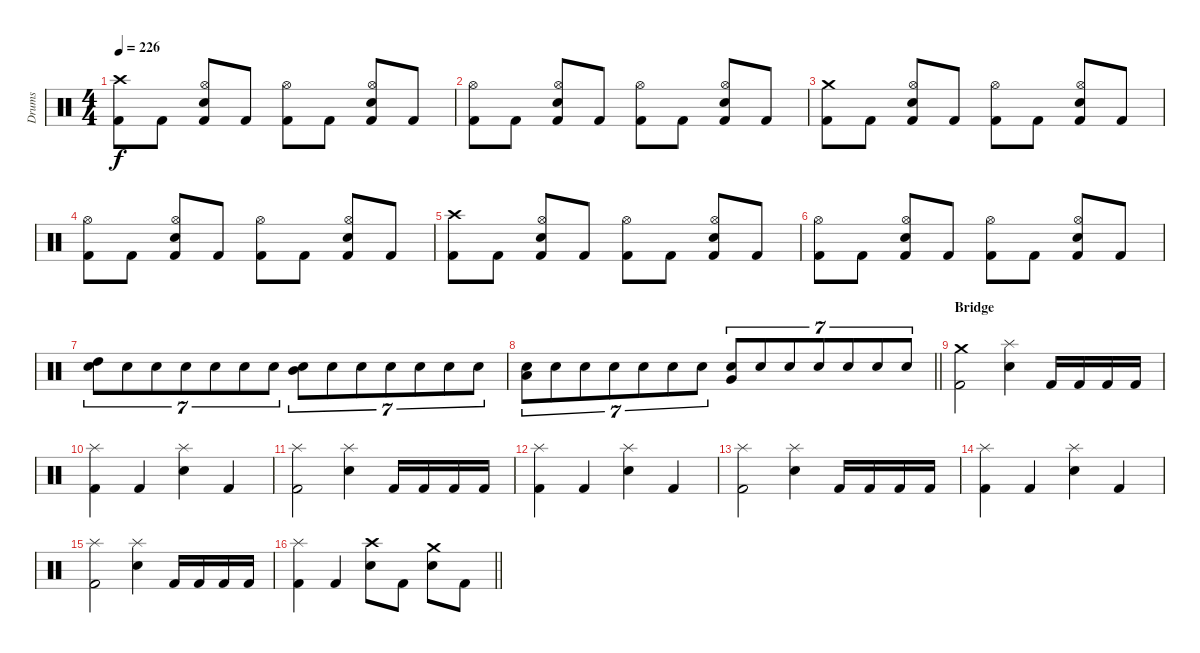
\track ("Drums" "Drums") {instrument percussion}
\staff {score}
\articulation defaults
\ts (4 4)
\tempo 226
\clef neutral
\ks c
("Crash high (hit)" "Kick (hit) 2").8{dy f} "Kick (hit) 2".8 ("Hi-Hat (open)" "Snare (hit) 2" "Kick (hit) 2").8 "Kick (hit) 2".8 ("Hi-Hat (open)" "Kick (hit) 2").8 "Kick (hit) 2".8 ("Hi-Hat (open)" "Snare (hit) 2" "Kick (hit) 2").8 "Kick (hit) 2".8 |
("Hi-Hat (open)" "Kick (hit) 2").8 "Kick (hit) 2".8 ("Hi-Hat (open)" "Snare (hit) 2" "Kick (hit) 2").8 "Kick (hit) 2".8 ("Hi-Hat (open)" "Kick (hit) 2").8 "Kick (hit) 2".8 ("Hi-Hat (open)" "Snare (hit) 2" "Kick (hit) 2").8 "Kick (hit) 2".8 |
("Crash medium (hit)" "Kick (hit) 2").8 "Kick (hit) 2".8 ("Hi-Hat (open)" "Snare (hit) 2" "Kick (hit) 2").8 "Kick (hit) 2".8 ("Hi-Hat (open)" "Kick (hit) 2").8 "Kick (hit) 2".8 ("Hi-Hat (open)" "Snare (hit) 2" "Kick (hit) 2").8 "Kick (hit) 2".8 |
("Hi-Hat (open)" "Kick (hit) 2").8 "Kick (hit) 2".8 ("Hi-Hat (open)" "Snare (hit) 2" "Kick (hit) 2").8 "Kick (hit) 2".8 ("Hi-Hat (open)" "Kick (hit) 2").8 "Kick (hit) 2".8 ("Hi-Hat (open)" "Snare (hit) 2" "Kick (hit) 2").8 "Kick (hit) 2".8 |
("Crash high (hit)" "Kick (hit) 2").8 "Kick (hit) 2".8 ("Hi-Hat (open)" "Snare (hit) 2" "Kick (hit) 2").8 "Kick (hit) 2".8 ("Hi-Hat (open)" "Kick (hit) 2").8 "Kick (hit) 2".8 ("Hi-Hat (open)" "Snare (hit) 2" "Kick (hit) 2").8 "Kick (hit) 2".8 |
("Hi-Hat (open)" "Kick (hit) 2").8 "Kick (hit) 2".8 ("Hi-Hat (open)" "Snare (hit) 2" "Kick (hit) 2").8 "Kick (hit) 2".8 ("Hi-Hat (open)" "Kick (hit) 2").8 "Kick (hit) 2".8 ("Hi-Hat (open)" "Snare (hit) 2" "Kick (hit) 2").8 "Kick (hit) 2".8 |
("Snare (hit) 2" "High Tom (hit)").8{tu (7 4)} "Snare (hit) 2".8{tu (7 4)} "Snare (hit) 2".8{tu (7 4)} "Snare (hit) 2".8{tu (7 4) beam merge} "Snare (hit) 2".8{tu (7 4)} "Snare (hit) 2".8{tu (7 4)} "Snare (hit) 2".8{tu (7 4)} ("Snare (hit) 2" "Mid Tom (hit)").8{tu (7 4)} "Snare (hit) 2".8{tu (7 4)} "Snare (hit) 2".8{tu (7 4)} "Snare (hit) 2".8{tu (7 4) beam merge} "Snare (hit) 2".8{tu (7 4)} "Snare (hit) 2".8{tu (7 4)} "Snare (hit) 2".8{tu (7 4)} |
\barLineRight lightlight
("Snare (hit) 2" "Low Tom (hit)").8{tu (7 4)} "Snare (hit) 2".8{tu (7 4)} "Snare (hit) 2".8{tu (7 4)} "Snare (hit) 2".8{tu (7 4) beam merge} "Snare (hit) 2".8{tu (7 4)} "Snare (hit) 2".8{tu (7 4)} "Snare (hit) 2".8{tu (7 4)} ("Snare (hit) 2" "Very Low Tom (hit)").8{tu (7 4)} "Snare (hit) 2".8{tu (7 4)} "Snare (hit) 2".8{tu (7 4)} "Snare (hit) 2".8{tu (7 4) beam merge} "Snare (hit) 2".8{tu (7 4)} "Snare (hit) 2".8{tu (7 4)} "Snare (hit) 2".8{tu (7 4)} |
\section ("" "Bridge")
("Crash medium (hit)" "Kick (hit) 2").2 ("Splash (hit)" "Snare (hit) 2").4 "Kick (hit) 2".16 "Kick (hit) 2".16 "Kick (hit) 2".16 "Kick (hit) 2".16 |
("Splash (hit)" "Kick (hit) 2").4 "Kick (hit) 2".4 ("Splash (hit)" "Snare (hit) 2").4 "Kick (hit) 2".4 |
("Splash (hit)" "Kick (hit) 2").2 ("Splash (hit)" "Snare (hit) 2").4 "Kick (hit) 2".16 "Kick (hit) 2".16 "Kick (hit) 2".16 "Kick (hit) 2".16 |
("Splash (hit)" "Kick (hit) 2").4 "Kick (hit) 2".4 ("Splash (hit)" "Snare (hit) 2").4 "Kick (hit) 2".4 |
("Splash (hit)" "Kick (hit) 2").2 ("Splash (hit)" "Snare (hit) 2").4 "Kick (hit) 2".16 "Kick (hit) 2".16 "Kick (hit) 2".16 "Kick (hit) 2".16 |
("Splash (hit)" "Kick (hit) 2").4 "Kick (hit) 2".4 ("Splash (hit)" "Snare (hit) 2").4 "Kick (hit) 2".4 |
("Splash (hit)" "Kick (hit) 2").2 ("Splash (hit)" "Snare (hit) 2").4 "Kick (hit) 2".16 "Kick (hit) 2".16 "Kick (hit) 2".16 "Kick (hit) 2".16 |
\barLineRight lightlight
("Splash (hit)" "Kick (hit) 2").4 "Kick (hit) 2".4 ("Crash high (hit)" "Snare (hit) 2").8 "Kick (hit) 2".8 ("Crash medium (hit)" "Snare (hit) 2").8 "Kick (hit) 2".8
